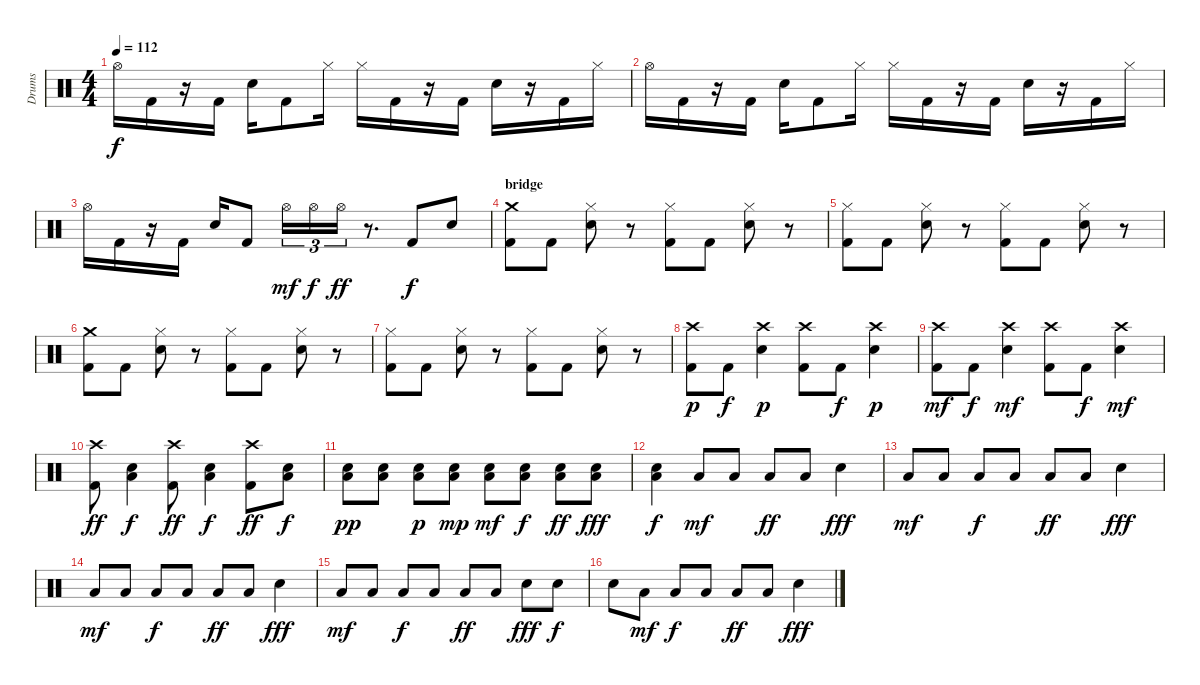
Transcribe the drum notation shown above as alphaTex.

\track ("Drums" "Drums") {instrument percussion}
\staff {score}
\articulation defaults
\ts (4 4)
\tempo 112
\clef neutral
\ks c "Hi-Hat (open)".16{dy f} "Kick (hit) 2".16
r.16 "Kick (hit) 2".16 "Electric Snare (hit)".16 "Kick (hit) 2".8 "Hi-Hat (closed)".16 "Hi-Hat (closed)".16 "Kick (hit) 2".16 r.16 "Kick (hit) 2".16 "Electric Snare (hit)".16 r.16 "Kick (hit) 2".16 "Hi-Hat (closed)".16 |
"Hi-Hat (open)".16 "Kick (hit) 2".16 r.16 "Kick (hit) 2".16 "Electric Snare (hit)".16 "Kick (hit) 2".8 "Hi-Hat (closed)".16 "Hi-Hat (closed)".16 "Kick (hit) 2".16 r.16 "Kick (hit) 2".16 "Electric Snare (hit)".16 r.16 "Kick (hit) 2".16 "Hi-Hat (closed)".16 |
"Hi-Hat (open)".16 "Kick (hit) 2".16 r.16 "Kick (hit) 2".16 "Electric Snare (hit)".16 "Kick (hit) 2".8 "Hi-Hat (open)".16{tu (3 2) dy mf} "Hi-Hat (open)".16{tu (3 2) dy f} "Hi-Hat (open)".16{tu (3 2) dy ff} r.8{d} "Kick (hit) 2".8{dy f} "Electric Snare (hit)".8 |
\section ("" "bridge")
("Crash medium (hit)" "Kick (hit) 2").8 "Kick (hit) 2".8 ("Hi-Hat (closed)" "Electric Snare (hit)").8 r.8 ("Hi-Hat (closed)" "Kick (hit) 2").8 "Kick (hit) 2".8 ("Hi-Hat (closed)" "Electric Snare (hit)").8 r.8 |
("Hi-Hat (closed)" "Kick (hit) 2").8 "Kick (hit) 2".8 ("Hi-Hat (closed)" "Electric Snare (hit)").8 r.8 ("Hi-Hat (closed)" "Kick (hit) 2").8 "Kick (hit) 2".8 ("Hi-Hat (closed)" "Electric Snare (hit)").8 r.8 |
("Crash medium (hit)" "Kick (hit) 2").8 "Kick (hit) 2".8 ("Hi-Hat (closed)" "Electric Snare (hit)").8 r.8 ("Hi-Hat (closed)" "Kick (hit) 2").8 "Kick (hit) 2".8 ("Hi-Hat (closed)" "Electric Snare (hit)").8 r.8 |
("Hi-Hat (closed)" "Kick (hit) 2").8 "Kick (hit) 2".8 ("Hi-Hat (closed)" "Electric Snare (hit)").8 r.8 ("Hi-Hat (closed)" "Kick (hit) 2").8 "Kick (hit) 2".8 ("Hi-Hat (closed)" "Electric Snare (hit)").8 r.8 |
("Crash high (hit)" "Kick (hit) 2").8{dy p} "Kick (hit) 2".8{dy f} ("Crash high (hit)" "Electric Snare (hit)").4{dy p} ("Crash high (hit)" "Kick (hit) 2").8 "Kick (hit) 2".8{dy f} ("Crash high (hit)" "Electric Snare (hit)").4{dy p} |
("Crash high (hit)" "Kick (hit) 2").8{dy mf} "Kick (hit) 2".8{dy f} ("Crash high (hit)" "Electric Snare (hit)").4{dy mf} ("Crash high (hit)" "Kick (hit) 2").8 "Kick (hit) 2".8{dy f} ("Crash high (hit)" "Electric Snare (hit)").4{dy mf} |
("Crash high (hit)" "Kick (hit) 2").8{dy ff} ("Low Floor Tom (hit)" "Electric Snare (hit)").4{dy f} ("Crash high (hit)" "Kick (hit) 2").8{dy ff} ("Electric Snare (hit)" "Low Floor Tom (hit)").4{dy f} ("Crash high (hit)" "Kick (hit) 2").8{dy ff} ("Electric Snare (hit)" "Low Floor Tom (hit)").8{dy f} |
("Electric Snare (hit)" "Low Floor Tom (hit)").8{dy pp} ("Electric Snare (hit)" "Low Floor Tom (hit)").8 ("Electric Snare (hit)" "Low Floor Tom (hit)").8{dy p} ("Electric Snare (hit)" "Low Floor Tom (hit)").8{dy mp} ("Electric Snare (hit)" "Low Floor Tom (hit)").8{dy mf} ("Electric Snare (hit)" "Low Floor Tom (hit)").8{dy f} ("Electric Snare (hit)" "Low Floor Tom (hit)").8{dy ff} ("Electric Snare (hit)" "Low Floor Tom (hit)").8{dy fff} |
("Electric Snare (hit)" "Low Floor Tom (hit)").4{dy f volume 16} "Low Floor Tom (hit)".8{dy mf volume 13} "Low Floor Tom (hit)".8 "Low Floor Tom (hit)".8{dy ff} "Low Floor Tom (hit)".8 "Electric Snare (hit)".4{dy fff} |
"Low Floor Tom (hit)".8{dy mf} "Low Floor Tom (hit)".8 "Low Floor Tom (hit)".8{dy f} "Low Floor Tom (hit)".8 "Low Floor Tom (hit)".8{dy ff} "Low Floor Tom (hit)".8 "Electric Snare (hit)".4{dy fff} |
"Low Floor Tom (hit)".8{dy mf} "Low Floor Tom (hit)".8 "Low Floor Tom (hit)".8{dy f} "Low Floor Tom (hit)".8 "Low Floor Tom (hit)".8{dy ff} "Low Floor Tom (hit)".8 "Electric Snare (hit)".4{dy fff} |
"Low Floor Tom (hit)".8{dy mf} "Low Floor Tom (hit)".8 "Low Floor Tom (hit)".8{dy f} "Low Floor Tom (hit)".8 "Low Floor Tom (hit)".8{dy ff} "Low Floor Tom (hit)".8 "Electric Snare (hit)".8{dy fff} "Electric Snare (hit)"{tr (40 16)}.8{dy f} |
"Electric Snare (hit)".8 "Low Floor Tom (hit)".8{dy mf} "Low Floor Tom (hit)".8{dy f} "Low Floor Tom (hit)".8 "Low Floor Tom (hit)".8{dy ff} "Low Floor Tom (hit)".8 "Electric Snare (hit)".4{dy fff}
